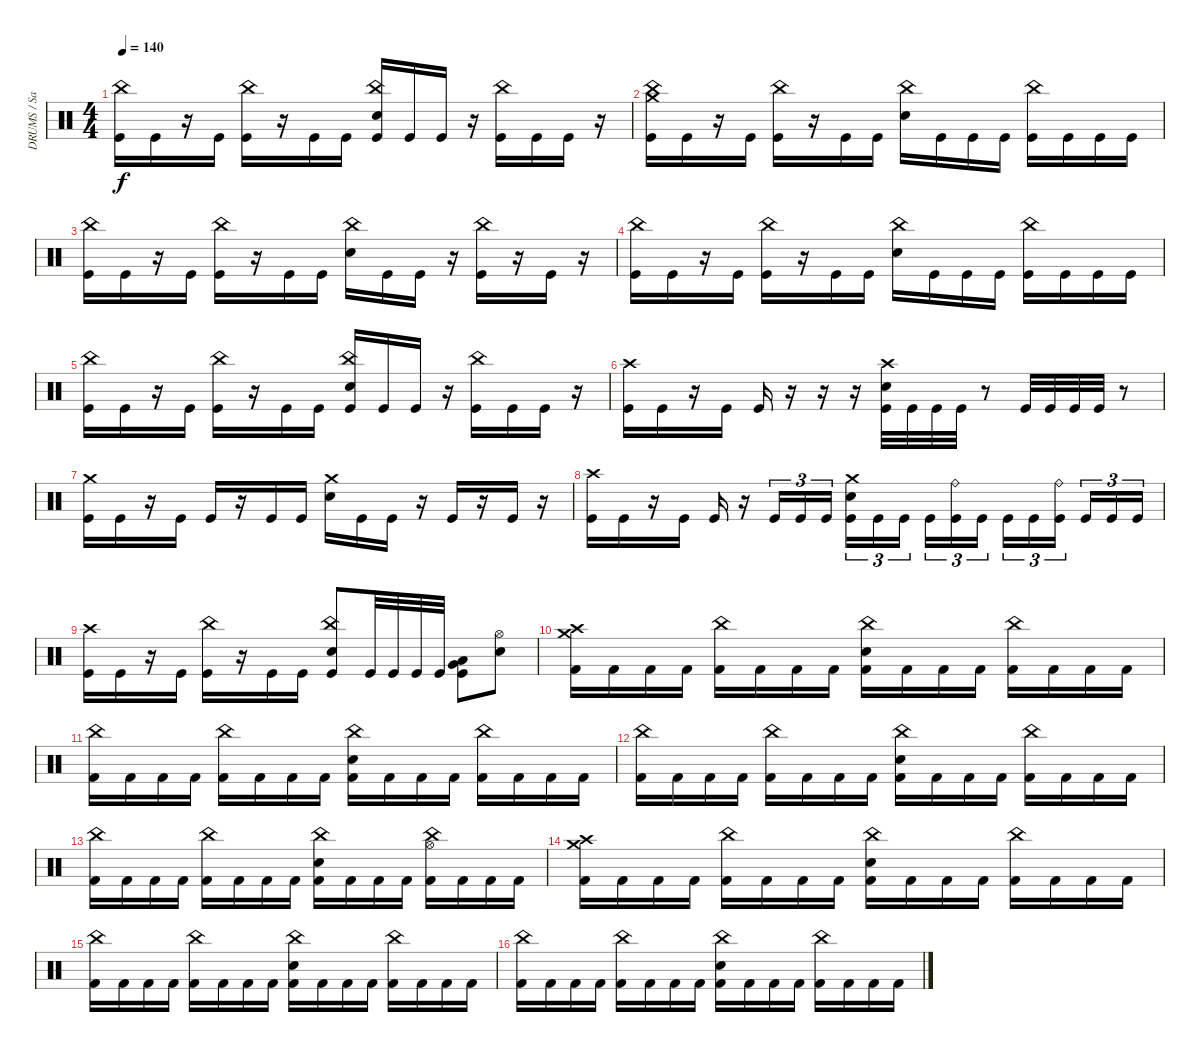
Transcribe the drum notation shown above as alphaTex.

\track ("DRUMS / Sasha" "DRUMS / Sa") {instrument percussion}
\staff {score}
\articulation defaults
\ts (4 4)
\tempo 140
\clef neutral
\ks c
("Kick (hit)" "China (hit)").16{dy f} "Kick (hit)".16 r.16 "Kick (hit)".16 ("Kick (hit)" "China (hit)").16 r.16 "Kick (hit)".16 "Kick (hit)".16 ("Snare (hit) 2" "Kick (hit)" "China (hit)").16 "Kick (hit)".16 "Kick (hit)".16 r.16 ("Kick (hit)" "China (hit)").16 "Kick (hit)".16 "Kick (hit)".16 r.16 |
("Kick (hit)" "China (hit)" "Crash medium (hit)").16 "Kick (hit)".16 r.16 "Kick (hit)".16 ("Kick (hit)" "China (hit)").16 r.16 "Kick (hit)".16 "Kick (hit)".16 ("Snare (hit) 2" "China (hit)").16 "Kick (hit)".16 "Kick (hit)".16 "Kick (hit)".16 ("Kick (hit)" "China (hit)").16 "Kick (hit)".16 "Kick (hit)".16 "Kick (hit)".16 |
("Kick (hit)" "China (hit)").16 "Kick (hit)".16 r.16 "Kick (hit)".16 ("Kick (hit)" "China (hit)").16 r.16 "Kick (hit)".16 "Kick (hit)".16 ("Snare (hit) 2" "China (hit)").16 "Kick (hit)".16 "Kick (hit)".16 r.16 ("Kick (hit)" "China (hit)").16 r.16 "Kick (hit)".16 r.16 |
("Kick (hit)" "China (hit)").16 "Kick (hit)".16 r.16 "Kick (hit)".16 ("Kick (hit)" "China (hit)").16 r.16 "Kick (hit)".16 "Kick (hit)".16 ("Snare (hit) 2" "China (hit)").16 "Kick (hit)".16 "Kick (hit)".16 "Kick (hit)".16 ("Kick (hit)" "China (hit)").16 "Kick (hit)".16 "Kick (hit)".16 "Kick (hit)".16 |
("Kick (hit)" "China (hit)").16 "Kick (hit)".16 r.16 "Kick (hit)".16 ("Kick (hit)" "China (hit)").16 r.16 "Kick (hit)".16 "Kick (hit)".16 ("Snare (hit) 2" "Kick (hit)" "China (hit)").16 "Kick (hit)".16 "Kick (hit)".16 r.16 ("Kick (hit)" "China (hit)").16 "Kick (hit)".16 "Kick (hit)".16 r.16 |
("Kick (hit)" "Crash high (hit)").16 "Kick (hit)".16 r.16 "Kick (hit)".16 "Kick (hit)".16 r.16 r.16 r.16 ("Kick (hit)" "Crash high (hit)" "Snare (hit) 2").32 "Kick (hit)".32 "Kick (hit)".32 "Kick (hit)".32 r.8 "Kick (hit)".32 "Kick (hit)".32 "Kick (hit)".32 "Kick (hit)".32 r.8 |
("Kick (hit)" "Crash medium (hit)").16 "Kick (hit)".16 r.16 "Kick (hit)".16 "Kick (hit)".16 r.16 "Kick (hit)".16 "Kick (hit)".16 ("Snare (hit) 2" "Crash medium (hit)").16 "Kick (hit)".16 "Kick (hit)".16 r.16 "Kick (hit)".16 r.16 "Kick (hit)".16 r.16 |
("Kick (hit)" "Crash high (hit)").16 "Kick (hit)".16 r.16 "Kick (hit)".16 "Kick (hit)".16 r.16 "Kick (hit)".16{tu (3 2)} "Kick (hit)".16{tu (3 2)} "Kick (hit)".16{tu (3 2)} ("Kick (hit)" "Snare (hit) 2" "Crash medium (hit)").16{tu (3 2)} "Kick (hit)".16{tu (3 2)} "Kick (hit)".16{tu (3 2) beam splitsecondary} "Kick (hit)".16{tu (3 2)} ("Kick (hit)" "Ride (bell)").16{tu (3 2)} "Kick (hit)".16{tu (3 2)} "Kick (hit)".16{tu (3 2)} "Kick (hit)".16{tu (3 2)} ("Kick (hit)" "Ride (bell)").16{tu (3 2) beam splitsecondary} "Kick (hit)".16{tu (3 2)} "Kick (hit)".16{tu (3 2)} "Kick (hit)".16{tu (3 2)} |
("Kick (hit)" "Crash high (hit)").16 "Kick (hit)".16 r.16 "Kick (hit)".16 ("Kick (hit)" "China (hit)").16 r.16 "Kick (hit)".16 "Kick (hit)".16 ("Snare (hit) 2" "China (hit)" "Kick (hit)").8 "Kick (hit)".32 "Kick (hit)".32 "Kick (hit)".32 "Kick (hit)".32 ("Kick (hit)" "Very Low Tom (hit)" "Low Tom (hit)").8 ("Hi-Hat (open)" "Electric Snare (hit)").8 |
("Crash high (hit)" "Crash medium (hit)" "Kick (hit) 2").16 "Kick (hit) 2".16 "Kick (hit) 2".16 "Kick (hit) 2".16 ("China (hit)" "Kick (hit) 2").16 "Kick (hit) 2".16 "Kick (hit) 2".16 "Kick (hit) 2".16 ("China (hit)" "Electric Snare (hit)" "Kick (hit) 2").16 "Kick (hit) 2".16 "Kick (hit) 2".16 "Kick (hit) 2".16 ("China (hit)" "Kick (hit) 2").16 "Kick (hit) 2".16 "Kick (hit) 2".16 "Kick (hit) 2".16 |
("China (hit)" "Kick (hit) 2").16 "Kick (hit) 2".16 "Kick (hit) 2".16 "Kick (hit) 2".16 ("China (hit)" "Kick (hit) 2").16 "Kick (hit) 2".16 "Kick (hit) 2".16 "Kick (hit) 2".16 ("China (hit)" "Electric Snare (hit)" "Kick (hit) 2").16 "Kick (hit) 2".16 "Kick (hit) 2".16 "Kick (hit) 2".16 ("China (hit)" "Kick (hit) 2").16 "Kick (hit) 2".16 "Kick (hit) 2".16 "Kick (hit) 2".16 |
("China (hit)" "Kick (hit) 2").16 "Kick (hit) 2".16 "Kick (hit) 2".16 "Kick (hit) 2".16 ("China (hit)" "Kick (hit) 2").16 "Kick (hit) 2".16 "Kick (hit) 2".16 "Kick (hit) 2".16 ("China (hit)" "Electric Snare (hit)" "Kick (hit) 2").16 "Kick (hit) 2".16 "Kick (hit) 2".16 "Kick (hit) 2".16 ("China (hit)" "Kick (hit) 2").16 "Kick (hit) 2".16 "Kick (hit) 2".16 "Kick (hit) 2".16 |
("China (hit)" "Kick (hit) 2").16 "Kick (hit) 2".16 "Kick (hit) 2".16 "Kick (hit) 2".16 ("China (hit)" "Kick (hit) 2").16 "Kick (hit) 2".16 "Kick (hit) 2".16 "Kick (hit) 2".16 ("China (hit)" "Electric Snare (hit)" "Kick (hit) 2").16 "Kick (hit) 2".16 "Kick (hit) 2".16 "Kick (hit) 2".16 ("China (hit)" "Hi-Hat (open)" "Kick (hit) 2").16 "Kick (hit) 2".16 "Kick (hit) 2".16 "Kick (hit) 2".16 |
("Crash high (hit)" "Crash medium (hit)" "Kick (hit) 2").16 "Kick (hit) 2".16 "Kick (hit) 2".16 "Kick (hit) 2".16 ("China (hit)" "Kick (hit) 2").16 "Kick (hit) 2".16 "Kick (hit) 2".16 "Kick (hit) 2".16 ("China (hit)" "Electric Snare (hit)" "Kick (hit) 2").16 "Kick (hit) 2".16 "Kick (hit) 2".16 "Kick (hit) 2".16 ("China (hit)" "Kick (hit) 2").16 "Kick (hit) 2".16 "Kick (hit) 2".16 "Kick (hit) 2".16 |
("China (hit)" "Kick (hit) 2").16 "Kick (hit) 2".16 "Kick (hit) 2".16 "Kick (hit) 2".16 ("China (hit)" "Kick (hit) 2").16 "Kick (hit) 2".16 "Kick (hit) 2".16 "Kick (hit) 2".16 ("China (hit)" "Electric Snare (hit)" "Kick (hit) 2").16 "Kick (hit) 2".16 "Kick (hit) 2".16 "Kick (hit) 2".16 ("China (hit)" "Kick (hit) 2").16 "Kick (hit) 2".16 "Kick (hit) 2".16 "Kick (hit) 2".16 |
("China (hit)" "Kick (hit) 2").16 "Kick (hit) 2".16 "Kick (hit) 2".16 "Kick (hit) 2".16 ("China (hit)" "Kick (hit) 2").16 "Kick (hit) 2".16 "Kick (hit) 2".16 "Kick (hit) 2".16 ("China (hit)" "Electric Snare (hit)" "Kick (hit) 2").16 "Kick (hit) 2".16 "Kick (hit) 2".16 "Kick (hit) 2".16 ("China (hit)" "Kick (hit) 2").16 "Kick (hit) 2".16 "Kick (hit) 2".16 "Kick (hit) 2".16
